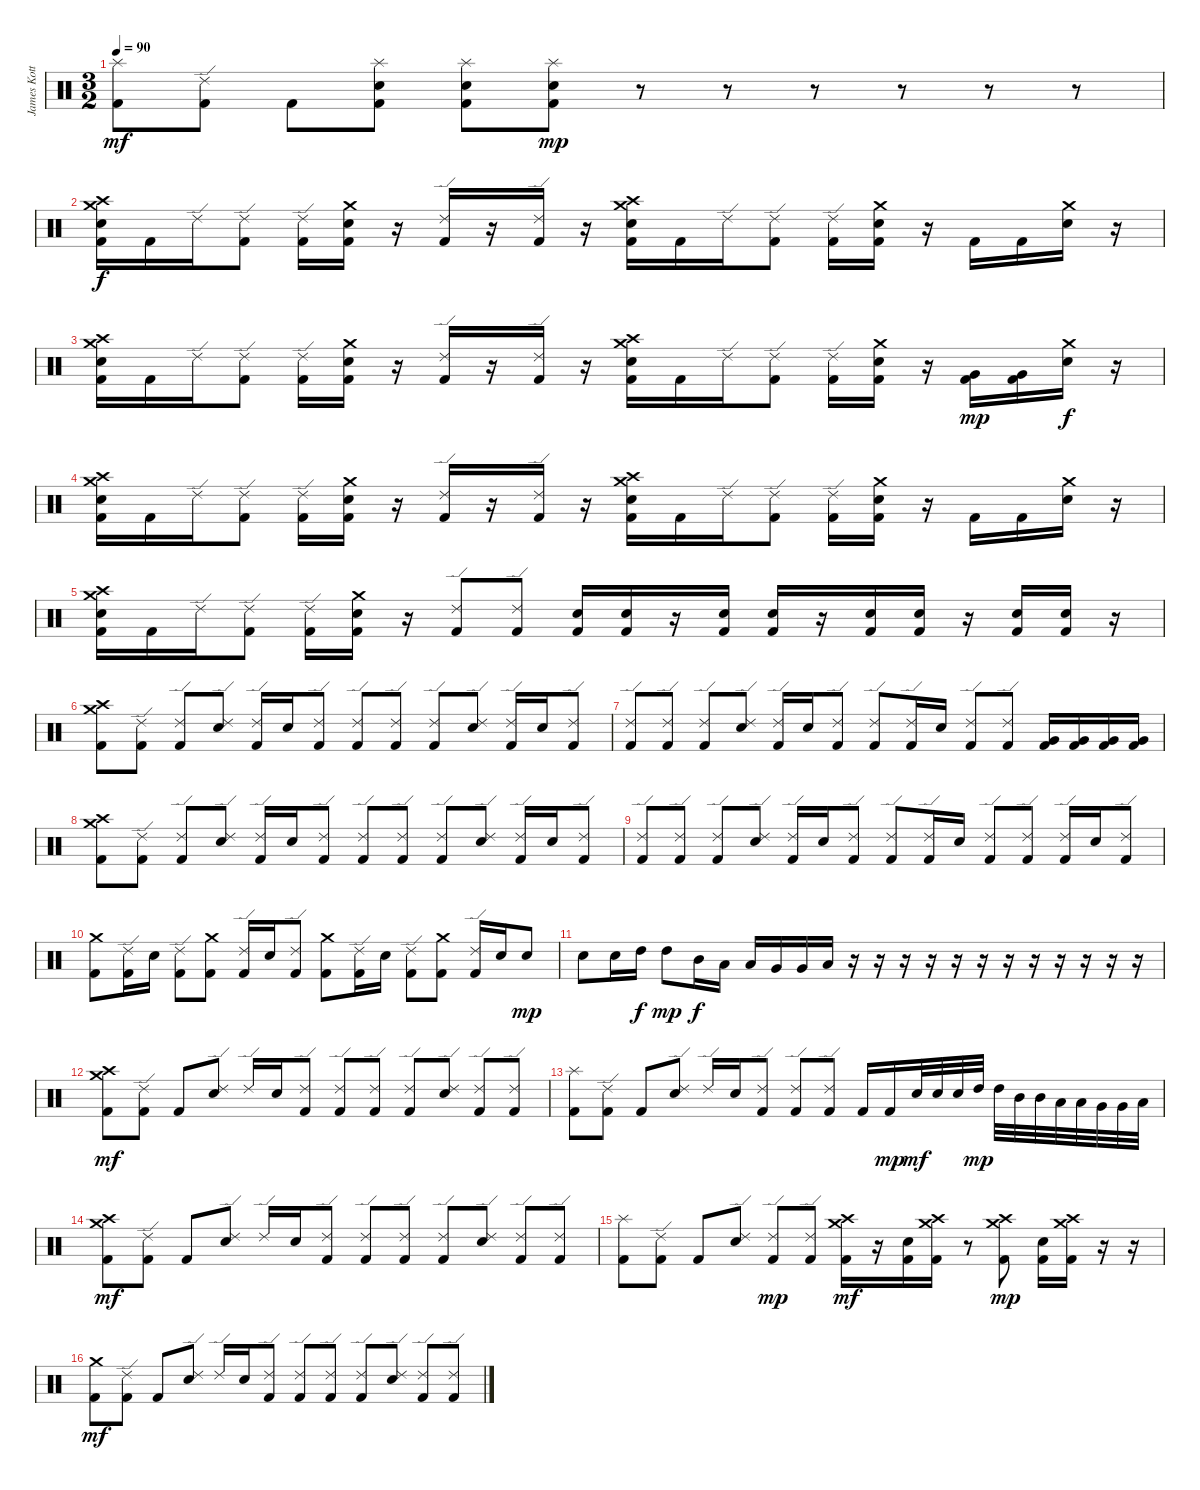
\track ("James Kottak" "James Kott") {instrument percussion}
\staff {score}
\articulation defaults
\ts (3 2)
\tempo 90
\clef neutral
\ks c
("Splash (hit)" "Kick (hit) 2").8{dy mf} ("Ride (edge) 2" "Kick (hit) 2").8 "Kick (hit) 2".8 ("Splash (hit)" "Electric Snare (hit)" "Kick (hit) 2").8 ("Splash (hit)" "Electric Snare (hit)" "Kick (hit) 2").8 ("Splash (hit)" "Electric Snare (hit)" "Kick (hit) 2").8{dy mp} r.8 r.8 r.8 r.8 r.8 r.8 |
("Crash medium (hit)" "Crash high (hit)" "Electric Snare (hit)" "Kick (hit) 2").16{dy f} "Kick (hit) 2".16 "Ride (edge) 2".16 ("Ride (edge) 2" "Kick (hit) 2").8 ("Ride (edge) 2" "Kick (hit) 2").16 ("Crash medium (hit)" "Electric Snare (hit)" "Kick (hit) 2").16 r.16 ("Ride (edge) 2" "Kick (hit) 2").16 r.16 ("Ride (edge) 2" "Kick (hit) 2").16 r.16 ("Crash high (hit)" "Crash medium (hit)" "Electric Snare (hit)" "Kick (hit) 2").16 "Kick (hit) 2".16 "Ride (edge) 2".16 ("Ride (edge) 2" "Kick (hit) 2").8 ("Ride (edge) 2" "Kick (hit) 2").16 ("Crash medium (hit)" "Electric Snare (hit)" "Kick (hit) 2").16 r.16 "Kick (hit) 2".16 "Kick (hit) 2".16 ("Crash medium (hit)" "Electric Snare (hit)").16 r.16 |
("Crash medium (hit)" "Crash high (hit)" "Electric Snare (hit)" "Kick (hit) 2").16 "Kick (hit) 2".16 "Ride (edge) 2".16 ("Ride (edge) 2" "Kick (hit) 2").8 ("Ride (edge) 2" "Kick (hit) 2").16 ("Crash medium (hit)" "Electric Snare (hit)" "Kick (hit) 2").16 r.16 ("Ride (edge) 2" "Kick (hit) 2").16 r.16 ("Ride (edge) 2" "Kick (hit) 2").16 r.16 ("Crash high (hit)" "Crash medium (hit)" "Electric Snare (hit)" "Kick (hit) 2").16 "Kick (hit) 2".16 "Ride (edge) 2".16 ("Ride (edge) 2" "Kick (hit) 2").8 ("Ride (edge) 2" "Kick (hit) 2").16 ("Crash medium (hit)" "Electric Snare (hit)" "Kick (hit) 2").16 r.16 ("Very Low Tom (hit)" "Kick (hit) 2").16{dy mp} ("Very Low Tom (hit)" "Kick (hit) 2").16 ("Crash medium (hit)" "Electric Snare (hit)").16{dy f} r.16 |
("Crash medium (hit)" "Crash high (hit)" "Electric Snare (hit)" "Kick (hit) 2").16 "Kick (hit) 2".16 "Ride (edge) 2".16 ("Ride (edge) 2" "Kick (hit) 2").8 ("Ride (edge) 2" "Kick (hit) 2").16 ("Crash medium (hit)" "Electric Snare (hit)" "Kick (hit) 2").16 r.16 ("Ride (edge) 2" "Kick (hit) 2").16 r.16 ("Ride (edge) 2" "Kick (hit) 2").16 r.16 ("Crash high (hit)" "Crash medium (hit)" "Electric Snare (hit)" "Kick (hit) 2").16 "Kick (hit) 2".16 "Ride (edge) 2".16 ("Ride (edge) 2" "Kick (hit) 2").8 ("Ride (edge) 2" "Kick (hit) 2").16 ("Crash medium (hit)" "Electric Snare (hit)" "Kick (hit) 2").16 r.16 "Kick (hit) 2".16 "Kick (hit) 2".16 ("Crash medium (hit)" "Electric Snare (hit)").16 r.16 |
("Crash medium (hit)" "Crash high (hit)" "Electric Snare (hit)" "Kick (hit) 2").16 "Kick (hit) 2".16 "Ride (edge) 2".16 ("Ride (edge) 2" "Kick (hit) 2").8 ("Ride (edge) 2" "Kick (hit) 2").16 ("Crash medium (hit)" "Electric Snare (hit)" "Kick (hit) 2").16 r.16 ("Ride (edge) 2" "Kick (hit) 2").8 ("Ride (edge) 2" "Kick (hit) 2").8 ("Electric Snare (hit)" "Kick (hit) 2").16 ("Electric Snare (hit)" "Kick (hit) 2").16 r.16 ("Electric Snare (hit)" "Kick (hit) 2").16 ("Electric Snare (hit)" "Kick (hit) 2").16 r.16 ("Electric Snare (hit)" "Kick (hit) 2").16 ("Electric Snare (hit)" "Kick (hit) 2").16 r.16 ("Electric Snare (hit)" "Kick (hit) 2").16 ("Electric Snare (hit)" "Kick (hit) 2").16 r.16 |
("Crash high (hit)" "Crash medium (hit)" "Kick (hit) 2").8 ("Ride (edge) 2" "Kick (hit) 2").8 ("Ride (edge) 2" "Kick (hit) 2").8 ("Ride (edge) 2" "Electric Snare (hit)").8 ("Ride (edge) 2" "Kick (hit) 2").16 "Electric Snare (hit)".16 ("Ride (edge) 2" "Kick (hit) 2").8 ("Ride (edge) 2" "Kick (hit) 2").8 ("Ride (edge) 2" "Kick (hit) 2").8 ("Ride (edge) 2" "Kick (hit) 2").8 ("Ride (edge) 2" "Electric Snare (hit)").8 ("Ride (edge) 2" "Kick (hit) 2").16 "Electric Snare (hit)".16 ("Ride (edge) 2" "Kick (hit) 2").8 |
("Ride (edge) 2" "Kick (hit) 2").8 ("Ride (edge) 2" "Kick (hit) 2").8 ("Ride (edge) 2" "Kick (hit) 2").8 ("Ride (edge) 2" "Electric Snare (hit)").8 ("Ride (edge) 2" "Kick (hit) 2").16 "Electric Snare (hit)".16 ("Ride (edge) 2" "Kick (hit) 2").8 ("Ride (edge) 2" "Kick (hit) 2").8 ("Ride (edge) 2" "Kick (hit) 2").16 "Electric Snare (hit)".16 ("Ride (edge) 2" "Kick (hit) 2").8 ("Ride (edge) 2" "Kick (hit) 2").8 ("Very Low Tom (hit)" "Kick (hit) 2").16 ("Very Low Tom (hit)" "Kick (hit) 2").16 ("Very Low Tom (hit)" "Kick (hit) 2").16 ("Very Low Tom (hit)" "Kick (hit) 2").16 |
("Crash high (hit)" "Crash medium (hit)" "Kick (hit) 2").8 ("Ride (edge) 2" "Kick (hit) 2").8 ("Ride (edge) 2" "Kick (hit) 2").8 ("Ride (edge) 2" "Electric Snare (hit)").8 ("Ride (edge) 2" "Kick (hit) 2").16 "Electric Snare (hit)".16 ("Ride (edge) 2" "Kick (hit) 2").8 ("Ride (edge) 2" "Kick (hit) 2").8 ("Ride (edge) 2" "Kick (hit) 2").8 ("Ride (edge) 2" "Kick (hit) 2").8 ("Ride (edge) 2" "Electric Snare (hit)").8 ("Ride (edge) 2" "Kick (hit) 2").16 "Electric Snare (hit)".16 ("Ride (edge) 2" "Kick (hit) 2").8 |
("Ride (edge) 2" "Kick (hit) 2").8 ("Ride (edge) 2" "Kick (hit) 2").8 ("Ride (edge) 2" "Kick (hit) 2").8 ("Ride (edge) 2" "Electric Snare (hit)").8 ("Ride (edge) 2" "Kick (hit) 2").16 "Electric Snare (hit)".16 ("Ride (edge) 2" "Kick (hit) 2").8 ("Ride (edge) 2" "Kick (hit) 2").8 ("Ride (edge) 2" "Kick (hit) 2").16 "Electric Snare (hit)".16 ("Ride (edge) 2" "Kick (hit) 2").8 ("Ride (edge) 2" "Kick (hit) 2").8 ("Ride (edge) 2" "Kick (hit) 2").16 "Electric Snare (hit)".16 ("Ride (edge) 2" "Kick (hit) 2").8 |
("Crash medium (hit)" "Kick (hit) 2").8 ("Ride (edge) 2" "Kick (hit) 2").16 "Electric Snare (hit)".16 ("Ride (edge) 2" "Kick (hit) 2").8 ("Crash medium (hit)" "Kick (hit) 2").8 ("Ride (edge) 2" "Kick (hit) 2").16 "Electric Snare (hit)".16 ("Ride (edge) 2" "Kick (hit) 2").8 ("Crash medium (hit)" "Kick (hit) 2").8 ("Ride (edge) 2" "Kick (hit) 2").16 "Electric Snare (hit)".16 ("Ride (edge) 2" "Kick (hit) 2").8 ("Crash medium (hit)" "Kick (hit) 2").8 ("Ride (edge) 2" "Kick (hit) 2").16 "Electric Snare (hit)".16 "Electric Snare (hit)".8{dy mp} |
"Electric Snare (hit)".8 "Electric Snare (hit)".16 "High Tom (hit)".16{dy f} "High Tom (hit)".8{dy mp} "Mid Tom (hit)".16{dy f} "Low Tom (hit)".16 "Low Tom (hit)".16 "Very Low Tom (hit)".16 "Very Low Tom (hit)".16 "Low Floor Tom (hit)".16 r.16 r.16 r.16 r.16 r.16 r.16 r.16 r.16 r.16 r.16 r.16 r.16 |
("Crash medium (hit)" "Crash high (hit)" "Kick (hit) 2").8{dy mf} ("Ride (edge) 2" "Kick (hit) 2").8 "Kick (hit) 2".8 ("Ride (edge) 2" "Electric Snare (hit)").8 "Ride (edge) 2".16 "Electric Snare (hit)".16 ("Ride (edge) 2" "Kick (hit) 2").8 ("Ride (edge) 2" "Kick (hit) 2").8 ("Ride (edge) 2" "Kick (hit) 2").8 ("Ride (edge) 2" "Kick (hit) 2").8 ("Ride (edge) 2" "Electric Snare (hit)").8 ("Ride (edge) 2" "Kick (hit) 2").8 ("Ride (edge) 2" "Kick (hit) 2").8 |
("Splash (hit)" "Kick (hit) 2").8 ("Ride (edge) 2" "Kick (hit) 2").8 "Kick (hit) 2".8 ("Ride (edge) 2" "Electric Snare (hit)").8 "Ride (edge) 2".16 "Electric Snare (hit)".16 ("Ride (edge) 2" "Kick (hit) 2").8 ("Ride (edge) 2" "Kick (hit) 2").8 ("Ride (edge) 2" "Kick (hit) 2").8 "Kick (hit) 2".16 "Kick (hit) 2".16{dy mp} "Electric Snare (hit)".32{dy mf} "Electric Snare (hit)".32 "Electric Snare (hit)".32 "High Tom (hit)".32{dy mp} "High Tom (hit)".32 "Mid Tom (hit)".32 "Mid Tom (hit)".32 "Low Tom (hit)".32 "Low Tom (hit)".32 "Very Low Tom (hit)".32 "Very Low Tom (hit)".32 "Low Floor Tom (hit)".32 |
("Crash medium (hit)" "Crash high (hit)" "Kick (hit) 2").8{dy mf} ("Ride (edge) 2" "Kick (hit) 2").8 "Kick (hit) 2".8 ("Ride (edge) 2" "Electric Snare (hit)").8 "Ride (edge) 2".16 "Electric Snare (hit)".16 ("Ride (edge) 2" "Kick (hit) 2").8 ("Ride (edge) 2" "Kick (hit) 2").8 ("Ride (edge) 2" "Kick (hit) 2").8 ("Ride (edge) 2" "Kick (hit) 2").8 ("Ride (edge) 2" "Electric Snare (hit)").8 ("Ride (edge) 2" "Kick (hit) 2").8 ("Ride (edge) 2" "Kick (hit) 2").8 |
("Splash (hit)" "Kick (hit) 2").8 ("Ride (edge) 2" "Kick (hit) 2").8 "Kick (hit) 2".8 ("Ride (edge) 2" "Electric Snare (hit)").8 ("Ride (edge) 2" "Kick (hit) 2").8{dy mp} ("Ride (edge) 2" "Kick (hit) 2").8 ("Crash high (hit)" "Crash medium (hit)" "Kick (hit) 2").16{dy mf} r.16 ("Electric Snare (hit)" "Kick (hit) 2").16 ("Crash high (hit)" "Crash medium (hit)" "Kick (hit) 2").16 r.8 ("Crash high (hit)" "Crash medium (hit)" "Kick (hit) 2").8{dy mp} ("Electric Snare (hit)" "Kick (hit) 2").16 ("Crash high (hit)" "Crash medium (hit)" "Kick (hit) 2").16 r.16 r.16 |
("Crash medium (hit)" "Kick (hit) 2").8{dy mf} ("Ride (edge) 2" "Kick (hit) 2").8 "Kick (hit) 2".8 ("Ride (edge) 2" "Electric Snare (hit)").8 "Ride (edge) 2".16 "Electric Snare (hit)".16 ("Ride (edge) 2" "Kick (hit) 2").8 ("Ride (edge) 2" "Kick (hit) 2").8 ("Ride (edge) 2" "Kick (hit) 2").8 ("Ride (edge) 2" "Kick (hit) 2").8 ("Ride (edge) 2" "Electric Snare (hit)").8 ("Ride (edge) 2" "Kick (hit) 2").8 ("Ride (edge) 2" "Kick (hit) 2").8
